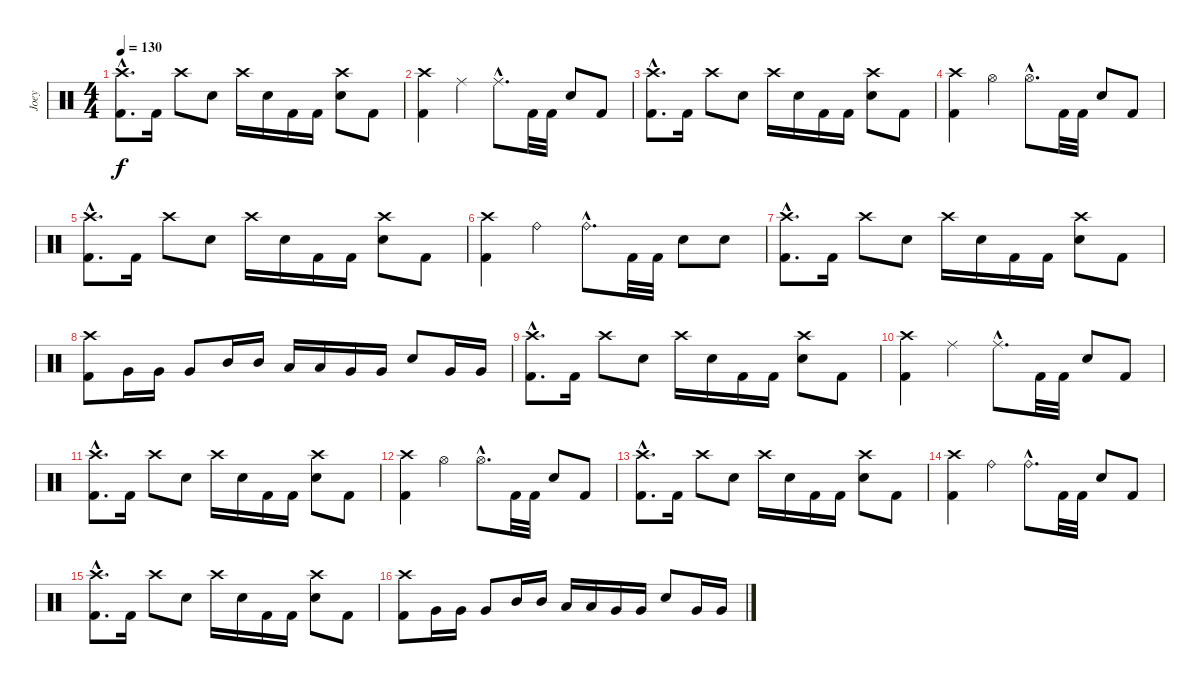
\track ("Joey" "Joey") {instrument percussion}
\staff {score}
\articulation defaults
\ts (4 4)
\tempo 130
\clef neutral
\ks c
("Crash high (hit)"{hac} "Kick (hit) 2"{hac}).8{d dy f} "Kick (hit) 2".16 "Crash high (hit)".8 "Electric Snare (hit)".8 "Crash high (hit)".16 "Electric Snare (hit)".16 "Kick (hit) 2".16 "Kick (hit) 2".16 ("Crash high (hit)" "Electric Snare (hit)").8 "Kick (hit) 2".8 |
("Crash high (hit)" "Kick (hit) 2").4 "Ride (middle)".4 "Ride (middle)"{hac}.8{d} "Kick (hit) 2".32 "Kick (hit) 2".32 "Electric Snare (hit)".8 "Kick (hit) 2".8 |
("Crash high (hit)"{hac} "Kick (hit) 2"{hac}).8{d} "Kick (hit) 2".16 "Crash high (hit)".8 "Electric Snare (hit)".8 "Crash high (hit)".16 "Electric Snare (hit)".16 "Kick (hit) 2".16 "Kick (hit) 2".16 ("Crash high (hit)" "Electric Snare (hit)").8 "Kick (hit) 2".8 |
("Crash high (hit)" "Kick (hit) 2").4 "Hi-Hat (open)".4 "Hi-Hat (open)"{hac}.8{d} "Kick (hit) 2".32 "Kick (hit) 2".32 "Electric Snare (hit)".8 "Kick (hit) 2".8 |
("Crash high (hit)"{hac} "Kick (hit) 2"{hac}).8{d} "Kick (hit) 2".16 "Crash high (hit)".8 "Electric Snare (hit)".8 "Crash high (hit)".16 "Electric Snare (hit)".16 "Kick (hit) 2".16 "Kick (hit) 2".16 ("Crash high (hit)" "Electric Snare (hit)").8 "Kick (hit) 2".8 |
("Crash high (hit)" "Kick (hit) 2").4 "Ride (bell)".4 "Ride (bell)"{hac}.8{d} "Kick (hit) 2".32 "Kick (hit) 2".32 "Electric Snare (hit)".8 "Electric Snare (hit)".8 |
("Crash high (hit)"{hac} "Kick (hit) 2"{hac}).8{d} "Kick (hit) 2".16 "Crash high (hit)".8 "Electric Snare (hit)".8 "Crash high (hit)".16 "Electric Snare (hit)".16 "Kick (hit) 2".16 "Kick (hit) 2".16 ("Crash high (hit)" "Electric Snare (hit)").8 "Kick (hit) 2".8 |
("Crash high (hit)" "Kick (hit) 2").8 "Very Low Tom (hit)".16 "Very Low Tom (hit)".16 "Very Low Tom (hit)".8 "Mid Tom (hit)".16 "Mid Tom (hit)".16 "Low Tom (hit)".16 "Low Tom (hit)".16 "Very Low Tom (hit)".16 "Very Low Tom (hit)".16 "Electric Snare (hit)".8 "Very Low Tom (hit)".16 "Very Low Tom (hit)".16 |
("Crash high (hit)"{hac} "Kick (hit) 2"{hac}).8{d} "Kick (hit) 2".16 "Crash high (hit)".8 "Electric Snare (hit)".8 "Crash high (hit)".16 "Electric Snare (hit)".16 "Kick (hit) 2".16 "Kick (hit) 2".16 ("Crash high (hit)" "Electric Snare (hit)").8 "Kick (hit) 2".8 |
("Crash high (hit)" "Kick (hit) 2").4 "Ride (middle)".4 "Ride (middle)"{hac}.8{d} "Kick (hit) 2".32 "Kick (hit) 2".32 "Electric Snare (hit)".8 "Kick (hit) 2".8 |
("Crash high (hit)"{hac} "Kick (hit) 2"{hac}).8{d} "Kick (hit) 2".16 "Crash high (hit)".8 "Electric Snare (hit)".8 "Crash high (hit)".16 "Electric Snare (hit)".16 "Kick (hit) 2".16 "Kick (hit) 2".16 ("Crash high (hit)" "Electric Snare (hit)").8 "Kick (hit) 2".8 |
("Crash high (hit)" "Kick (hit) 2").4 "Hi-Hat (open)".4 "Hi-Hat (open)"{hac}.8{d} "Kick (hit) 2".32 "Kick (hit) 2".32 "Electric Snare (hit)".8 "Kick (hit) 2".8 |
("Crash high (hit)"{hac} "Kick (hit) 2"{hac}).8{d} "Kick (hit) 2".16 "Crash high (hit)".8 "Electric Snare (hit)".8 "Crash high (hit)".16 "Electric Snare (hit)".16 "Kick (hit) 2".16 "Kick (hit) 2".16 ("Crash high (hit)" "Electric Snare (hit)").8 "Kick (hit) 2".8 |
("Crash high (hit)" "Kick (hit) 2").4 "Ride (bell)".4 "Ride (bell)"{hac}.8{d} "Kick (hit) 2".32 "Kick (hit) 2".32 "Electric Snare (hit)".8 "Kick (hit) 2".8 |
("Crash high (hit)"{hac} "Kick (hit) 2"{hac}).8{d} "Kick (hit) 2".16 "Crash high (hit)".8 "Electric Snare (hit)".8 "Crash high (hit)".16 "Electric Snare (hit)".16 "Kick (hit) 2".16 "Kick (hit) 2".16 ("Crash high (hit)" "Electric Snare (hit)").8 "Kick (hit) 2".8 |
("Crash high (hit)" "Kick (hit) 2").8 "Very Low Tom (hit)".16 "Very Low Tom (hit)".16 "Very Low Tom (hit)".8 "Mid Tom (hit)".16 "Mid Tom (hit)".16 "Low Tom (hit)".16 "Low Tom (hit)".16 "Very Low Tom (hit)".16 "Very Low Tom (hit)".16 "Electric Snare (hit)".8 "Very Low Tom (hit)".16 "Very Low Tom (hit)".16
